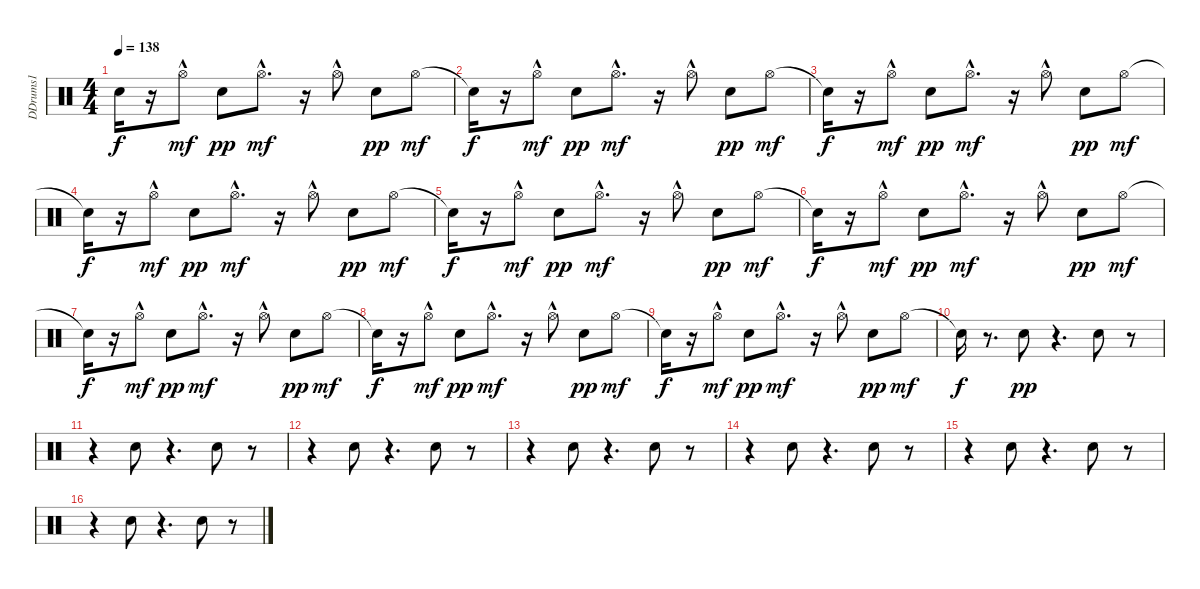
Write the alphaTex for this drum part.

\track ("DDrums1" "DDrums1") {instrument percussion}
\staff {score}
\articulation defaults
\ts (4 4)
\tempo 138
\clef neutral
\ks c "Snare (hit)"{t}.16{dy f}
r.16 "Hi-Hat (open)"{hac}.8{dy mf} "Electric Snare (hit)".8{dy pp} "Hi-Hat (open)"{hac}.8{d dy mf} r.16 "Hi-Hat (open)"{hac}.8 "Electric Snare (hit)".8{dy pp} "Hi-Hat (open)".8{dy mf} |
"Snare (hit)"{t}.16{dy f} r.16 "Hi-Hat (open)"{hac}.8{dy mf} "Electric Snare (hit)".8{dy pp} "Hi-Hat (open)"{hac}.8{d dy mf} r.16 "Hi-Hat (open)"{hac}.8 "Electric Snare (hit)".8{dy pp} "Hi-Hat (open)".8{dy mf} |
"Snare (hit)"{t}.16{dy f} r.16 "Hi-Hat (open)"{hac}.8{dy mf} "Electric Snare (hit)".8{dy pp} "Hi-Hat (open)"{hac}.8{d dy mf} r.16 "Hi-Hat (open)"{hac}.8 "Electric Snare (hit)".8{dy pp} "Hi-Hat (open)".8{dy mf} |
"Snare (hit)"{t}.16{dy f} r.16 "Hi-Hat (open)"{hac}.8{dy mf} "Electric Snare (hit)".8{dy pp} "Hi-Hat (open)"{hac}.8{d dy mf} r.16 "Hi-Hat (open)"{hac}.8 "Electric Snare (hit)".8{dy pp} "Hi-Hat (open)".8{dy mf} |
"Snare (hit)"{t}.16{dy f} r.16 "Hi-Hat (open)"{hac}.8{dy mf} "Electric Snare (hit)".8{dy pp} "Hi-Hat (open)"{hac}.8{d dy mf} r.16 "Hi-Hat (open)"{hac}.8 "Electric Snare (hit)".8{dy pp} "Hi-Hat (open)".8{dy mf} |
"Snare (hit)"{t}.16{dy f} r.16 "Hi-Hat (open)"{hac}.8{dy mf} "Electric Snare (hit)".8{dy pp} "Hi-Hat (open)"{hac}.8{d dy mf} r.16 "Hi-Hat (open)"{hac}.8 "Electric Snare (hit)".8{dy pp} "Hi-Hat (open)".8{dy mf} |
"Snare (hit)"{t}.16{dy f} r.16 "Hi-Hat (open)"{hac}.8{dy mf} "Electric Snare (hit)".8{dy pp} "Hi-Hat (open)"{hac}.8{d dy mf} r.16 "Hi-Hat (open)"{hac}.8 "Electric Snare (hit)".8{dy pp} "Hi-Hat (open)".8{dy mf} |
"Snare (hit)"{t}.16{dy f} r.16 "Hi-Hat (open)"{hac}.8{dy mf} "Electric Snare (hit)".8{dy pp} "Hi-Hat (open)"{hac}.8{d dy mf} r.16 "Hi-Hat (open)"{hac}.8 "Electric Snare (hit)".8{dy pp} "Hi-Hat (open)".8{dy mf} |
"Snare (hit)"{t}.16{dy f} r.16 "Hi-Hat (open)"{hac}.8{dy mf} "Electric Snare (hit)".8{dy pp} "Hi-Hat (open)"{hac}.8{d dy mf} r.16 "Hi-Hat (open)"{hac}.8 "Electric Snare (hit)".8{dy pp} "Hi-Hat (open)".8{dy mf} |
"Snare (hit)"{t}.16{dy f} r.8{d} "Electric Snare (hit)".8{dy pp} r.4{d} "Electric Snare (hit)".8 r.8 |
r.4 "Electric Snare (hit)".8 r.4{d} "Electric Snare (hit)".8 r.8 |
r.4 "Electric Snare (hit)".8 r.4{d} "Electric Snare (hit)".8 r.8 |
r.4 "Electric Snare (hit)".8 r.4{d} "Electric Snare (hit)".8 r.8 |
r.4 "Electric Snare (hit)".8 r.4{d} "Electric Snare (hit)".8 r.8 |
r.4 "Electric Snare (hit)".8 r.4{d} "Electric Snare (hit)".8 r.8 |
r.4 "Electric Snare (hit)".8 r.4{d} "Electric Snare (hit)".8 r.8
